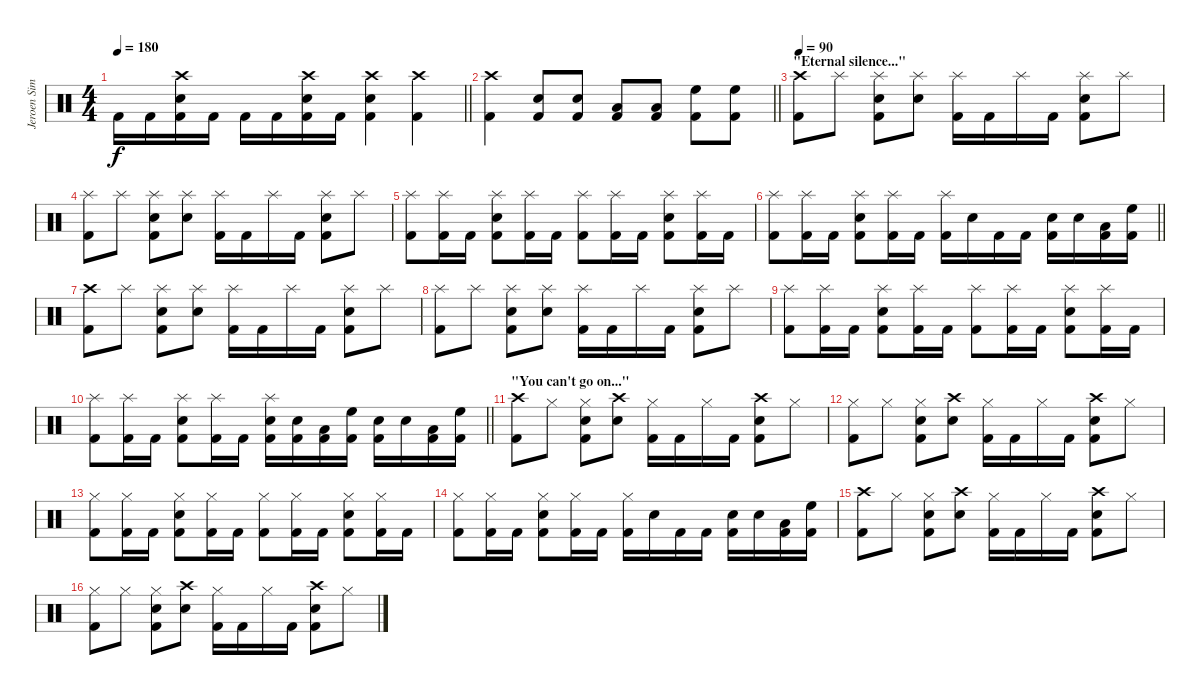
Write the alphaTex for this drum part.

\track ("Jeroen Simons" "Jeroen Sim") {instrument percussion}
\staff {score}
\articulation defaults
\ts (4 4)
\tempo 180
\clef neutral
\barLineRight lightlight
\ks c "Kick (hit) 2".16{dy f} "Kick (hit) 2".16
("Kick (hit) 2" "Snare (hit) 2" "Crash high (hit)").16 "Kick (hit) 2".16 "Kick (hit) 2".16 "Kick (hit) 2".16 ("Kick (hit) 2" "Snare (hit) 2" "Crash high (hit)").16 "Kick (hit) 2".16 ("Kick (hit) 2" "Snare (hit) 2" "Crash high (hit)").4 ("Kick (hit) 2" "Crash high (hit)").4 |
\barLineRight lightlight
("Kick (hit) 2" "Crash high (hit)").4 ("Kick (hit) 2" "Snare (hit) 2").8 ("Kick (hit) 2" "Snare (hit) 2").8 ("Kick (hit) 2" "Low Tom (hit)").8 ("Kick (hit) 2" "Low Tom (hit)").8 ("Kick (hit) 2" "High Floor Tom (hit)").8 ("Kick (hit) 2" "High Floor Tom (hit)").8 |
\section ("" "\"Eternal silence...\"")
\tempo 90
("Kick (hit) 2" "Crash high (hit)").8 "Splash (hit)".8 ("Kick (hit) 2" "Snare (hit) 2" "Splash (hit)").8 ("Snare (hit) 2" "Splash (hit)").8 ("Kick (hit) 2" "Splash (hit)").16 "Kick (hit) 2".16 "Splash (hit)".16 "Kick (hit) 2".16 ("Kick (hit) 2" "Snare (hit) 2" "Splash (hit)").8 "Splash (hit)".8 |
("Kick (hit) 2" "Splash (hit)").8 "Splash (hit)".8 ("Kick (hit) 2" "Snare (hit) 2" "Splash (hit)").8 ("Snare (hit) 2" "Splash (hit)").8 ("Kick (hit) 2" "Splash (hit)").16 "Kick (hit) 2".16 "Splash (hit)".16 "Kick (hit) 2".16 ("Kick (hit) 2" "Snare (hit) 2" "Splash (hit)").8 "Splash (hit)".8 |
("Kick (hit) 2" "Splash (hit)").8 ("Kick (hit) 2" "Splash (hit)").16 "Kick (hit) 2".16 ("Kick (hit) 2" "Snare (hit) 2" "Splash (hit)").8 ("Kick (hit) 2" "Splash (hit)").16 "Kick (hit) 2".16 ("Kick (hit) 2" "Splash (hit)").8 ("Kick (hit) 2" "Splash (hit)").16 "Kick (hit) 2".16 ("Kick (hit) 2" "Snare (hit) 2" "Splash (hit)").8 ("Kick (hit) 2" "Splash (hit)").16 "Kick (hit) 2".16 |
\barLineRight lightlight
("Kick (hit) 2" "Splash (hit)").8 ("Kick (hit) 2" "Splash (hit)").16 "Kick (hit) 2".16 ("Kick (hit) 2" "Snare (hit) 2" "Splash (hit)").8 ("Kick (hit) 2" "Splash (hit)").16 "Kick (hit) 2".16 ("Kick (hit) 2" "Splash (hit)").16 "Snare (hit) 2".16 "Kick (hit) 2".16 "Kick (hit) 2".16 ("Kick (hit) 2" "Snare (hit) 2").16 "Snare (hit) 2".16 ("Kick (hit) 2" "Low Tom (hit)").16 ("Kick (hit) 2" "High Floor Tom (hit)").16 |
("Kick (hit) 2" "Crash high (hit)").8 "Splash (hit)".8 ("Kick (hit) 2" "Snare (hit) 2" "Splash (hit)").8 ("Snare (hit) 2" "Splash (hit)").8 ("Kick (hit) 2" "Splash (hit)").16 "Kick (hit) 2".16 "Splash (hit)".16 "Kick (hit) 2".16 ("Kick (hit) 2" "Snare (hit) 2" "Splash (hit)").8 "Splash (hit)".8 |
("Kick (hit) 2" "Splash (hit)").8 "Splash (hit)".8 ("Kick (hit) 2" "Snare (hit) 2" "Splash (hit)").8 ("Snare (hit) 2" "Splash (hit)").8 ("Kick (hit) 2" "Splash (hit)").16 "Kick (hit) 2".16 "Splash (hit)".16 "Kick (hit) 2".16 ("Kick (hit) 2" "Snare (hit) 2" "Splash (hit)").8 "Splash (hit)".8 |
("Kick (hit) 2" "Splash (hit)").8 ("Kick (hit) 2" "Splash (hit)").16 "Kick (hit) 2".16 ("Kick (hit) 2" "Snare (hit) 2" "Splash (hit)").8 ("Kick (hit) 2" "Splash (hit)").16 "Kick (hit) 2".16 ("Kick (hit) 2" "Splash (hit)").8 ("Kick (hit) 2" "Splash (hit)").16 "Kick (hit) 2".16 ("Kick (hit) 2" "Snare (hit) 2" "Splash (hit)").8 ("Kick (hit) 2" "Splash (hit)").16 "Kick (hit) 2".16 |
\barLineRight lightlight
("Kick (hit) 2" "Splash (hit)").8 ("Kick (hit) 2" "Splash (hit)").16 "Kick (hit) 2".16 ("Kick (hit) 2" "Snare (hit) 2" "Splash (hit)").8 ("Kick (hit) 2" "Splash (hit)").16 "Kick (hit) 2".16 ("Kick (hit) 2" "Snare (hit) 2" "Splash (hit)").16 ("Kick (hit) 2" "Snare (hit) 2").16 ("Kick (hit) 2" "Low Tom (hit)").16 ("Kick (hit) 2" "High Floor Tom (hit)").16 ("Kick (hit) 2" "Snare (hit) 2").16 "Snare (hit) 2".16 ("Kick (hit) 2" "Low Tom (hit)").16 ("Kick (hit) 2" "High Floor Tom (hit)").16 |
\section ("" "\"You can't go on...\"")
("Kick (hit) 2" "Crash high (hit)").8 "Hi-Hat (closed)".8 ("Kick (hit) 2" "Snare (hit) 2" "Hi-Hat (closed)").8 ("Snare (hit) 2" "Crash high (hit)").8 ("Kick (hit) 2" "Hi-Hat (closed)").16 "Kick (hit) 2".16 "Hi-Hat (closed)".16 "Kick (hit) 2".16 ("Kick (hit) 2" "Snare (hit) 2" "Crash high (hit)").8 "Hi-Hat (closed)".8 |
("Kick (hit) 2" "Hi-Hat (closed)").8 "Hi-Hat (closed)".8 ("Kick (hit) 2" "Snare (hit) 2" "Hi-Hat (closed)").8 ("Snare (hit) 2" "Crash high (hit)").8 ("Kick (hit) 2" "Hi-Hat (closed)").16 "Kick (hit) 2".16 "Hi-Hat (closed)".16 "Kick (hit) 2".16 ("Kick (hit) 2" "Snare (hit) 2" "Crash high (hit)").8 "Hi-Hat (closed)".8 |
("Kick (hit) 2" "Hi-Hat (closed)").8 ("Kick (hit) 2" "Hi-Hat (closed)").16 "Kick (hit) 2".16 ("Kick (hit) 2" "Snare (hit) 2" "Hi-Hat (closed)").8 ("Kick (hit) 2" "Hi-Hat (closed)").16 "Kick (hit) 2".16 ("Kick (hit) 2" "Hi-Hat (closed)").8 ("Kick (hit) 2" "Hi-Hat (closed)").16 "Kick (hit) 2".16 ("Kick (hit) 2" "Snare (hit) 2" "Hi-Hat (closed)").8 ("Kick (hit) 2" "Hi-Hat (closed)").16 "Kick (hit) 2".16 |
("Kick (hit) 2" "Hi-Hat (closed)").8 ("Kick (hit) 2" "Hi-Hat (closed)").16 "Kick (hit) 2".16 ("Kick (hit) 2" "Snare (hit) 2" "Hi-Hat (closed)").8 ("Kick (hit) 2" "Hi-Hat (closed)").16 "Kick (hit) 2".16 ("Kick (hit) 2" "Hi-Hat (closed)").16 "Snare (hit) 2".16 "Kick (hit) 2".16 "Kick (hit) 2".16 ("Kick (hit) 2" "Snare (hit) 2").16 "Snare (hit) 2".16 ("Kick (hit) 2" "Low Tom (hit)").16 ("Kick (hit) 2" "High Floor Tom (hit)").16 |
("Kick (hit) 2" "Crash high (hit)").8 "Hi-Hat (closed)".8 ("Kick (hit) 2" "Snare (hit) 2" "Hi-Hat (closed)").8 ("Snare (hit) 2" "Crash high (hit)").8 ("Kick (hit) 2" "Hi-Hat (closed)").16 "Kick (hit) 2".16 "Hi-Hat (closed)".16 "Kick (hit) 2".16 ("Kick (hit) 2" "Snare (hit) 2" "Crash high (hit)").8 "Hi-Hat (closed)".8 |
("Kick (hit) 2" "Hi-Hat (closed)").8 "Hi-Hat (closed)".8 ("Kick (hit) 2" "Snare (hit) 2" "Hi-Hat (closed)").8 ("Snare (hit) 2" "Crash high (hit)").8 ("Kick (hit) 2" "Hi-Hat (closed)").16 "Kick (hit) 2".16 "Hi-Hat (closed)".16 "Kick (hit) 2".16 ("Kick (hit) 2" "Snare (hit) 2" "Crash high (hit)").8 "Hi-Hat (closed)".8
